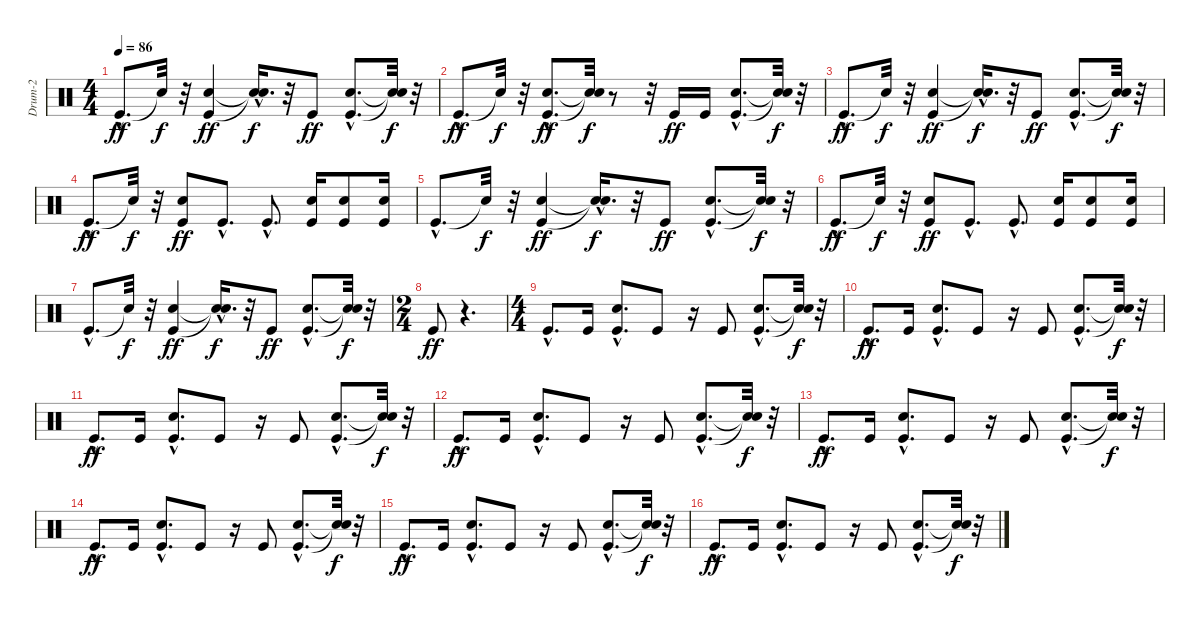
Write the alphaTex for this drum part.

\track ("Drum-2" "Drum-2") {instrument percussion}
\staff {score}
\articulation defaults
\ts (4 4)
\tempo 86
\clef neutral
\ks c "Kick (hit)"{hac}.8{d dy ff} "Snare (hit)"{t}.32{dy f}
r.32 ("Kick (hit)" "Electric Snare (hit)").4{dy ff} ("Snare (hit)"{hac t} "Snare (hit)"{hac t}).16{d dy f} r.32 "Kick (hit)".8{dy ff} ("Kick (hit)"{hac} "Electric Snare (hit)"{hac}).8{d} ("Snare (hit)"{t} "Snare (hit)"{t}).32{dy f} r.32 |
"Kick (hit)"{hac}.8{d dy ff} "Snare (hit)"{t}.32{dy f} r.32 ("Kick (hit)"{hac} "Electric Snare (hit)"{hac}).8{d dy ff} ("Snare (hit)"{t} "Snare (hit)"{t}).32{dy f} r.8 r.32 "Kick (hit)".16{dy ff} "Kick (hit)".16 ("Kick (hit)"{hac} "Electric Snare (hit)"{hac}).8{d} ("Snare (hit)"{t} "Snare (hit)"{t}).32{dy f} r.32 |
"Kick (hit)"{hac}.8{d dy ff} "Snare (hit)"{t}.32{dy f} r.32 ("Kick (hit)" "Electric Snare (hit)").4{dy ff} ("Snare (hit)"{hac t} "Snare (hit)"{hac t}).16{d dy f} r.32 "Kick (hit)".8{dy ff} ("Kick (hit)"{hac} "Electric Snare (hit)"{hac}).8{d} ("Snare (hit)"{t} "Snare (hit)"{t}).32{dy f} r.32 |
"Kick (hit)"{hac}.8{d dy ff} "Snare (hit)"{t}.32{dy f} r.32 ("Kick (hit)" "Electric Snare (hit)").8{dy ff} "Kick (hit)"{hac}.8{d} "Kick (hit)"{hac}.8{d} ("Kick (hit)" "Electric Snare (hit)").16 ("Kick (hit)" "Electric Snare (hit)").8 ("Kick (hit)" "Electric Snare (hit)").16 |
"Kick (hit)"{hac}.8{d} "Snare (hit)"{t}.32{dy f} r.32 ("Kick (hit)" "Electric Snare (hit)").4{dy ff} ("Snare (hit)"{hac t} "Snare (hit)"{hac t}).16{d dy f} r.32 "Kick (hit)".8{dy ff} ("Kick (hit)"{hac} "Electric Snare (hit)"{hac}).8{d} ("Snare (hit)"{t} "Snare (hit)"{t}).32{dy f} r.32 |
"Kick (hit)"{hac}.8{d dy ff} "Snare (hit)"{t}.32{dy f} r.32 ("Kick (hit)" "Electric Snare (hit)").8{dy ff} "Kick (hit)"{hac}.8{d} "Kick (hit)"{hac}.8{d} ("Kick (hit)" "Electric Snare (hit)").16 ("Kick (hit)" "Electric Snare (hit)").8 ("Kick (hit)" "Electric Snare (hit)").16 |
"Kick (hit)"{hac}.8{d} "Snare (hit)"{t}.32{dy f} r.32 ("Kick (hit)" "Electric Snare (hit)").4{dy ff} ("Snare (hit)"{hac t} "Snare (hit)"{hac t}).16{d dy f} r.32 "Kick (hit)".8{dy ff} ("Kick (hit)"{hac} "Electric Snare (hit)"{hac}).8{d} ("Snare (hit)"{t} "Snare (hit)"{t}).32{dy f} r.32 |
\ts (2 4)
"Kick (hit)".8{dy ff} r.4{d} |
\ts (4 4)
"Kick (hit)"{hac}.8{d} "Kick (hit)".16 ("Kick (hit)"{hac} "Electric Snare (hit)"{hac}).8{d} "Kick (hit)".8 r.16 "Kick (hit)".8 ("Kick (hit)"{hac} "Electric Snare (hit)"{hac}).8{d} ("Snare (hit)"{t} "Snare (hit)"{t}).32{dy f} r.32 |
"Kick (hit)"{hac}.8{d dy ff} "Kick (hit)".16 ("Kick (hit)"{hac} "Electric Snare (hit)"{hac}).8{d} "Kick (hit)".8 r.16 "Kick (hit)".8 ("Kick (hit)"{hac} "Electric Snare (hit)"{hac}).8{d} ("Snare (hit)"{t} "Snare (hit)"{t}).32{dy f} r.32 |
"Kick (hit)"{hac}.8{d dy ff} "Kick (hit)".16 ("Kick (hit)"{hac} "Electric Snare (hit)"{hac}).8{d} "Kick (hit)".8 r.16 "Kick (hit)".8 ("Kick (hit)"{hac} "Electric Snare (hit)"{hac}).8{d} ("Snare (hit)"{t} "Snare (hit)"{t}).32{dy f} r.32 |
"Kick (hit)"{hac}.8{d dy ff} "Kick (hit)".16 ("Kick (hit)"{hac} "Electric Snare (hit)"{hac}).8{d} "Kick (hit)".8 r.16 "Kick (hit)".8 ("Kick (hit)"{hac} "Electric Snare (hit)"{hac}).8{d} ("Snare (hit)"{t} "Snare (hit)"{t}).32{dy f} r.32 |
"Kick (hit)"{hac}.8{d dy ff} "Kick (hit)".16 ("Kick (hit)"{hac} "Electric Snare (hit)"{hac}).8{d} "Kick (hit)".8 r.16 "Kick (hit)".8 ("Kick (hit)"{hac} "Electric Snare (hit)"{hac}).8{d} ("Snare (hit)"{t} "Snare (hit)"{t}).32{dy f} r.32 |
"Kick (hit)"{hac}.8{d dy ff} "Kick (hit)".16 ("Kick (hit)"{hac} "Electric Snare (hit)"{hac}).8{d} "Kick (hit)".8 r.16 "Kick (hit)".8 ("Kick (hit)"{hac} "Electric Snare (hit)"{hac}).8{d} ("Snare (hit)"{t} "Snare (hit)"{t}).32{dy f} r.32 |
"Kick (hit)"{hac}.8{d dy ff} "Kick (hit)".16 ("Kick (hit)"{hac} "Electric Snare (hit)"{hac}).8{d} "Kick (hit)".8 r.16 "Kick (hit)".8 ("Kick (hit)"{hac} "Electric Snare (hit)"{hac}).8{d} ("Snare (hit)"{t} "Snare (hit)"{t}).32{dy f} r.32 |
"Kick (hit)"{hac}.8{d dy ff} "Kick (hit)".16 ("Kick (hit)"{hac} "Electric Snare (hit)"{hac}).8{d} "Kick (hit)".8 r.16 "Kick (hit)".8 ("Kick (hit)"{hac} "Electric Snare (hit)"{hac}).8{d} ("Snare (hit)"{t} "Snare (hit)"{t}).32{dy f} r.32
